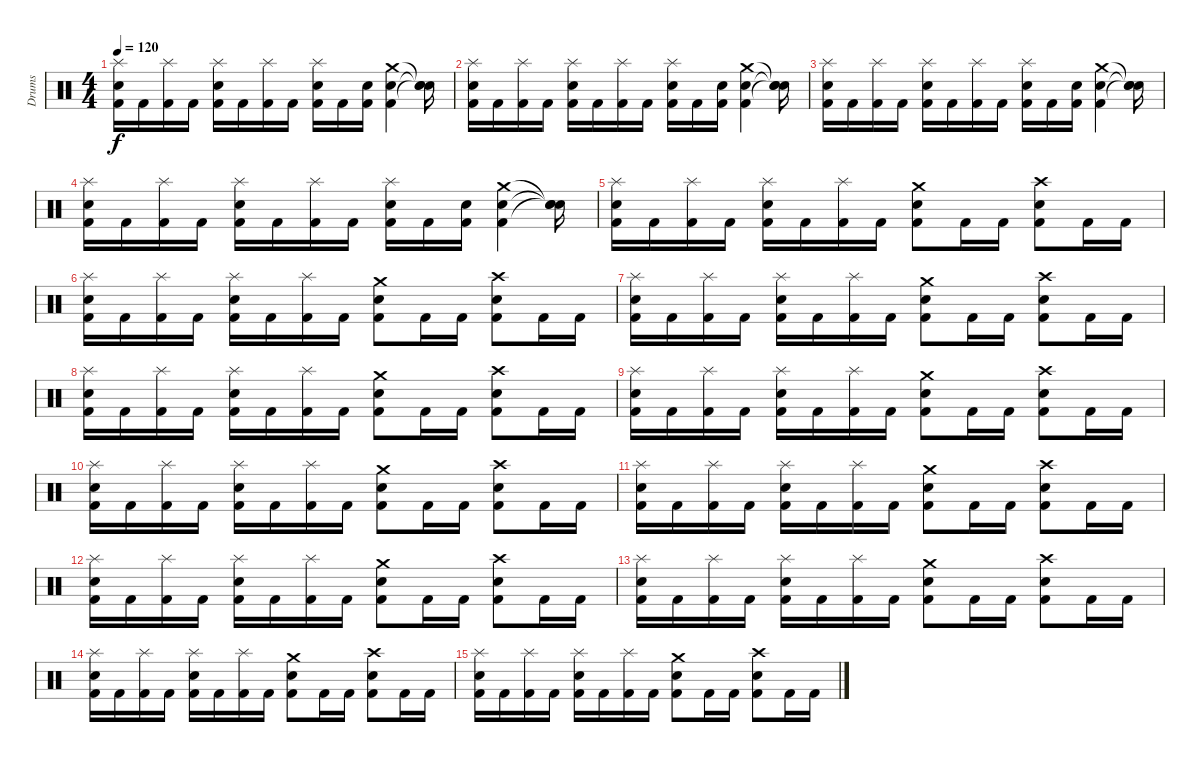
\track ("Drums" "Drums") {instrument percussion}
\staff {score}
\articulation defaults
\ts (4 4)
\tempo 120
\clef neutral
\ks c
("Splash (hit)" "Snare (hit) 2" "Kick (hit) 2").16{dy f} "Kick (hit) 2".16 ("Splash (hit)" "Kick (hit) 2").16 "Kick (hit) 2".16 ("Splash (hit)" "Snare (hit) 2" "Kick (hit) 2").16 "Kick (hit) 2".16 ("Splash (hit)" "Kick (hit) 2").16 "Kick (hit) 2".16 ("Splash (hit)" "Snare (hit) 2" "Kick (hit) 2").16 "Kick (hit) 2".16 ("Snare (hit) 2" "Kick (hit) 2").16 ("Crash medium (hit)" "Snare (hit) 2" "Kick (hit) 2").4 ("Snare (hit)"{t} "Snare (hit)"{t} "Snare (hit)"{t}).16 |
("Splash (hit)" "Snare (hit) 2" "Kick (hit) 2").16 "Kick (hit) 2".16 ("Splash (hit)" "Kick (hit) 2").16 "Kick (hit) 2".16 ("Splash (hit)" "Snare (hit) 2" "Kick (hit) 2").16 "Kick (hit) 2".16 ("Splash (hit)" "Kick (hit) 2").16 "Kick (hit) 2".16 ("Splash (hit)" "Snare (hit) 2" "Kick (hit) 2").16 "Kick (hit) 2".16 ("Snare (hit) 2" "Kick (hit) 2").16 ("Crash medium (hit)" "Snare (hit) 2" "Kick (hit) 2").4 ("Snare (hit)"{t} "Snare (hit)"{t} "Snare (hit)"{t}).16 |
("Splash (hit)" "Snare (hit) 2" "Kick (hit) 2").16 "Kick (hit) 2".16 ("Splash (hit)" "Kick (hit) 2").16 "Kick (hit) 2".16 ("Splash (hit)" "Snare (hit) 2" "Kick (hit) 2").16 "Kick (hit) 2".16 ("Splash (hit)" "Kick (hit) 2").16 "Kick (hit) 2".16 ("Splash (hit)" "Snare (hit) 2" "Kick (hit) 2").16 "Kick (hit) 2".16 ("Snare (hit) 2" "Kick (hit) 2").16 ("Crash medium (hit)" "Snare (hit) 2" "Kick (hit) 2").4 ("Snare (hit)"{t} "Snare (hit)"{t} "Snare (hit)"{t}).16 |
("Splash (hit)" "Snare (hit) 2" "Kick (hit) 2").16 "Kick (hit) 2".16 ("Splash (hit)" "Kick (hit) 2").16 "Kick (hit) 2".16 ("Splash (hit)" "Snare (hit) 2" "Kick (hit) 2").16 "Kick (hit) 2".16 ("Splash (hit)" "Kick (hit) 2").16 "Kick (hit) 2".16 ("Splash (hit)" "Snare (hit) 2" "Kick (hit) 2").16 "Kick (hit) 2".16 ("Snare (hit) 2" "Kick (hit) 2").16 ("Crash medium (hit)" "Snare (hit) 2" "Kick (hit) 2").4 ("Snare (hit)"{t} "Snare (hit)"{t} "Snare (hit)"{t}).16 |
("Splash (hit)" "Snare (hit) 2" "Kick (hit) 2").16 "Kick (hit) 2".16 ("Splash (hit)" "Kick (hit) 2").16 "Kick (hit) 2".16 ("Splash (hit)" "Snare (hit) 2" "Kick (hit) 2").16 "Kick (hit) 2".16 ("Splash (hit)" "Kick (hit) 2").16 "Kick (hit) 2".16 ("Crash medium (hit)" "Snare (hit) 2" "Kick (hit) 2").8 "Kick (hit) 2".16 "Kick (hit) 2".16 ("Crash high (hit)" "Snare (hit) 2" "Kick (hit) 2").8 "Kick (hit) 2".16 "Kick (hit) 2".16 |
("Splash (hit)" "Snare (hit) 2" "Kick (hit) 2").16 "Kick (hit) 2".16 ("Splash (hit)" "Kick (hit) 2").16 "Kick (hit) 2".16 ("Splash (hit)" "Snare (hit) 2" "Kick (hit) 2").16 "Kick (hit) 2".16 ("Splash (hit)" "Kick (hit) 2").16 "Kick (hit) 2".16 ("Crash medium (hit)" "Snare (hit) 2" "Kick (hit) 2").8 "Kick (hit) 2".16 "Kick (hit) 2".16 ("Crash high (hit)" "Snare (hit) 2" "Kick (hit) 2").8 "Kick (hit) 2".16 "Kick (hit) 2".16 |
("Splash (hit)" "Snare (hit) 2" "Kick (hit) 2").16 "Kick (hit) 2".16 ("Splash (hit)" "Kick (hit) 2").16 "Kick (hit) 2".16 ("Splash (hit)" "Snare (hit) 2" "Kick (hit) 2").16 "Kick (hit) 2".16 ("Splash (hit)" "Kick (hit) 2").16 "Kick (hit) 2".16 ("Crash medium (hit)" "Snare (hit) 2" "Kick (hit) 2").8 "Kick (hit) 2".16 "Kick (hit) 2".16 ("Crash high (hit)" "Snare (hit) 2" "Kick (hit) 2").8 "Kick (hit) 2".16 "Kick (hit) 2".16 |
("Splash (hit)" "Snare (hit) 2" "Kick (hit) 2").16 "Kick (hit) 2".16 ("Splash (hit)" "Kick (hit) 2").16 "Kick (hit) 2".16 ("Splash (hit)" "Snare (hit) 2" "Kick (hit) 2").16 "Kick (hit) 2".16 ("Splash (hit)" "Kick (hit) 2").16 "Kick (hit) 2".16 ("Crash medium (hit)" "Snare (hit) 2" "Kick (hit) 2").8 "Kick (hit) 2".16 "Kick (hit) 2".16 ("Crash high (hit)" "Snare (hit) 2" "Kick (hit) 2").8 "Kick (hit) 2".16 "Kick (hit) 2".16 |
("Splash (hit)" "Snare (hit) 2" "Kick (hit) 2").16 "Kick (hit) 2".16 ("Splash (hit)" "Kick (hit) 2").16 "Kick (hit) 2".16 ("Splash (hit)" "Snare (hit) 2" "Kick (hit) 2").16 "Kick (hit) 2".16 ("Splash (hit)" "Kick (hit) 2").16 "Kick (hit) 2".16 ("Crash medium (hit)" "Snare (hit) 2" "Kick (hit) 2").8 "Kick (hit) 2".16 "Kick (hit) 2".16 ("Crash high (hit)" "Snare (hit) 2" "Kick (hit) 2").8 "Kick (hit) 2".16 "Kick (hit) 2".16 |
("Splash (hit)" "Snare (hit) 2" "Kick (hit) 2").16 "Kick (hit) 2".16 ("Splash (hit)" "Kick (hit) 2").16 "Kick (hit) 2".16 ("Splash (hit)" "Snare (hit) 2" "Kick (hit) 2").16 "Kick (hit) 2".16 ("Splash (hit)" "Kick (hit) 2").16 "Kick (hit) 2".16 ("Crash medium (hit)" "Snare (hit) 2" "Kick (hit) 2").8 "Kick (hit) 2".16 "Kick (hit) 2".16 ("Crash high (hit)" "Snare (hit) 2" "Kick (hit) 2").8 "Kick (hit) 2".16 "Kick (hit) 2".16 |
("Splash (hit)" "Snare (hit) 2" "Kick (hit) 2").16 "Kick (hit) 2".16 ("Splash (hit)" "Kick (hit) 2").16 "Kick (hit) 2".16 ("Splash (hit)" "Snare (hit) 2" "Kick (hit) 2").16 "Kick (hit) 2".16 ("Splash (hit)" "Kick (hit) 2").16 "Kick (hit) 2".16 ("Crash medium (hit)" "Snare (hit) 2" "Kick (hit) 2").8 "Kick (hit) 2".16 "Kick (hit) 2".16 ("Crash high (hit)" "Snare (hit) 2" "Kick (hit) 2").8 "Kick (hit) 2".16 "Kick (hit) 2".16 |
("Splash (hit)" "Snare (hit) 2" "Kick (hit) 2").16 "Kick (hit) 2".16 ("Splash (hit)" "Kick (hit) 2").16 "Kick (hit) 2".16 ("Splash (hit)" "Snare (hit) 2" "Kick (hit) 2").16 "Kick (hit) 2".16 ("Splash (hit)" "Kick (hit) 2").16 "Kick (hit) 2".16 ("Crash medium (hit)" "Snare (hit) 2" "Kick (hit) 2").8 "Kick (hit) 2".16 "Kick (hit) 2".16 ("Crash high (hit)" "Snare (hit) 2" "Kick (hit) 2").8 "Kick (hit) 2".16 "Kick (hit) 2".16 |
("Splash (hit)" "Snare (hit) 2" "Kick (hit) 2").16{volume 3} "Kick (hit) 2".16 ("Splash (hit)" "Kick (hit) 2").16 "Kick (hit) 2".16 ("Splash (hit)" "Snare (hit) 2" "Kick (hit) 2").16 "Kick (hit) 2".16 ("Splash (hit)" "Kick (hit) 2").16 "Kick (hit) 2".16 ("Crash medium (hit)" "Snare (hit) 2" "Kick (hit) 2").8 "Kick (hit) 2".16 "Kick (hit) 2".16 ("Crash high (hit)" "Snare (hit) 2" "Kick (hit) 2").8 "Kick (hit) 2".16 "Kick (hit) 2".16 |
("Splash (hit)" "Snare (hit) 2" "Kick (hit) 2").16 "Kick (hit) 2".16 ("Splash (hit)" "Kick (hit) 2").16 "Kick (hit) 2".16 ("Splash (hit)" "Snare (hit) 2" "Kick (hit) 2").16 "Kick (hit) 2".16 ("Splash (hit)" "Kick (hit) 2").16 "Kick (hit) 2".16 ("Crash medium (hit)" "Snare (hit) 2" "Kick (hit) 2").8 "Kick (hit) 2".16 "Kick (hit) 2".16 ("Crash high (hit)" "Snare (hit) 2" "Kick (hit) 2").8 "Kick (hit) 2".16 "Kick (hit) 2".16 |
("Splash (hit)" "Snare (hit) 2" "Kick (hit) 2").16{volume 0} "Kick (hit) 2".16 ("Splash (hit)" "Kick (hit) 2").16 "Kick (hit) 2".16 ("Splash (hit)" "Snare (hit) 2" "Kick (hit) 2").16 "Kick (hit) 2".16 ("Splash (hit)" "Kick (hit) 2").16 "Kick (hit) 2".16 ("Crash medium (hit)" "Snare (hit) 2" "Kick (hit) 2").8 "Kick (hit) 2".16 "Kick (hit) 2".16 ("Crash high (hit)" "Snare (hit) 2" "Kick (hit) 2").8 "Kick (hit) 2".16 "Kick (hit) 2".16
